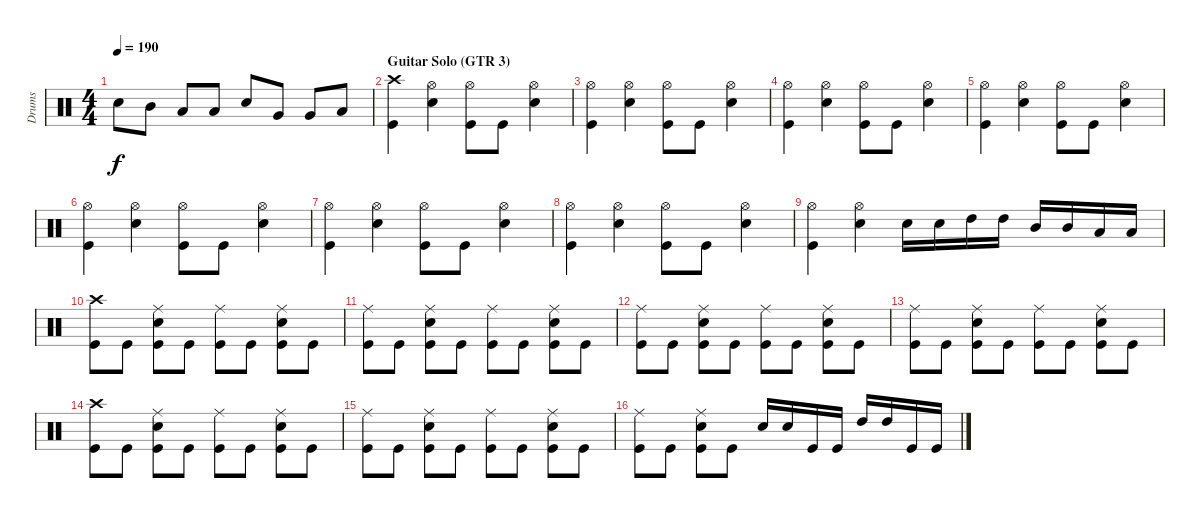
\track ("Drums" "Drums") {instrument percussion}
\staff {score}
\articulation defaults
\ts (4 4)
\tempo 190
\clef neutral
\ks c "Electric Snare (hit)".8{dy f} "Mid Tom (hit)".8 "Low Tom (hit)".8 "Low Tom (hit)".8 "Electric Snare (hit)".8 "Very Low Tom (hit)".8 "Very Low Tom (hit)".8 "Low Floor Tom (hit)".8
|
\section ("" "Guitar Solo (GTR 3)")
("Crash high (hit)" "Kick (hit)").4 ("Hi-Hat (open)" "Electric Snare (hit)").4 ("Hi-Hat (open)" "Kick (hit)").8 "Kick (hit)".8 ("Hi-Hat (open)" "Electric Snare (hit)").4 |
("Hi-Hat (open)" "Kick (hit)").4 ("Hi-Hat (open)" "Electric Snare (hit)").4 ("Hi-Hat (open)" "Kick (hit)").8 "Kick (hit)".8 ("Hi-Hat (open)" "Electric Snare (hit)").4 |
("Hi-Hat (open)" "Kick (hit)").4 ("Hi-Hat (open)" "Electric Snare (hit)").4 ("Hi-Hat (open)" "Kick (hit)").8 "Kick (hit)".8 ("Hi-Hat (open)" "Electric Snare (hit)").4 |
("Hi-Hat (open)" "Kick (hit)").4 ("Hi-Hat (open)" "Electric Snare (hit)").4 ("Hi-Hat (open)" "Kick (hit)").8 "Kick (hit)".8 ("Hi-Hat (open)" "Electric Snare (hit)").4 |
("Hi-Hat (open)" "Kick (hit)").4 ("Hi-Hat (open)" "Electric Snare (hit)").4 ("Hi-Hat (open)" "Kick (hit)").8 "Kick (hit)".8 ("Hi-Hat (open)" "Electric Snare (hit)").4 |
("Hi-Hat (open)" "Kick (hit)").4 ("Hi-Hat (open)" "Electric Snare (hit)").4 ("Hi-Hat (open)" "Kick (hit)").8 "Kick (hit)".8 ("Hi-Hat (open)" "Electric Snare (hit)").4 |
("Hi-Hat (open)" "Kick (hit)").4 ("Hi-Hat (open)" "Electric Snare (hit)").4 ("Hi-Hat (open)" "Kick (hit)").8 "Kick (hit)".8 ("Hi-Hat (open)" "Electric Snare (hit)").4 |
("Hi-Hat (open)" "Kick (hit)").4 ("Hi-Hat (open)" "Electric Snare (hit)").4 "Electric Snare (hit)".16 "Electric Snare (hit)".16 "High Tom (hit)".16 "High Tom (hit)".16 "Mid Tom (hit)".16 "Mid Tom (hit)".16 "Low Tom (hit)".16 "Low Tom (hit)".16 |
("Crash high (hit)" "Kick (hit)").8 "Kick (hit)".8 ("Ride (middle)" "Electric Snare (hit)" "Kick (hit)").8 "Kick (hit)".8 ("Ride (middle)" "Kick (hit)").8 "Kick (hit)".8 ("Ride (middle)" "Electric Snare (hit)" "Kick (hit)").8 "Kick (hit)".8 |
("Ride (middle)" "Kick (hit)").8 "Kick (hit)".8 ("Ride (middle)" "Electric Snare (hit)" "Kick (hit)").8 "Kick (hit)".8 ("Ride (middle)" "Kick (hit)").8 "Kick (hit)".8 ("Ride (middle)" "Electric Snare (hit)" "Kick (hit)").8 "Kick (hit)".8 |
("Ride (middle)" "Kick (hit)").8 "Kick (hit)".8 ("Ride (middle)" "Electric Snare (hit)" "Kick (hit)").8 "Kick (hit)".8 ("Ride (middle)" "Kick (hit)").8 "Kick (hit)".8 ("Ride (middle)" "Electric Snare (hit)" "Kick (hit)").8 "Kick (hit)".8 |
("Ride (middle)" "Kick (hit)").8 "Kick (hit)".8 ("Ride (middle)" "Electric Snare (hit)" "Kick (hit)").8 "Kick (hit)".8 ("Ride (middle)" "Kick (hit)").8 "Kick (hit)".8 ("Ride (middle)" "Electric Snare (hit)" "Kick (hit)").8 "Kick (hit)".8 |
("Crash high (hit)" "Kick (hit)").8 "Kick (hit)".8 ("Ride (middle)" "Electric Snare (hit)" "Kick (hit)").8 "Kick (hit)".8 ("Ride (middle)" "Kick (hit)").8 "Kick (hit)".8 ("Ride (middle)" "Electric Snare (hit)" "Kick (hit)").8 "Kick (hit)".8 |
("Ride (middle)" "Kick (hit)").8 "Kick (hit)".8 ("Ride (middle)" "Electric Snare (hit)" "Kick (hit)").8 "Kick (hit)".8 ("Ride (middle)" "Kick (hit)").8 "Kick (hit)".8 ("Ride (middle)" "Electric Snare (hit)" "Kick (hit)").8 "Kick (hit)".8 |
("Ride (middle)" "Kick (hit)").8 "Kick (hit)".8 ("Ride (middle)" "Electric Snare (hit)" "Kick (hit)").8 "Kick (hit)".8 "Electric Snare (hit)".16 "Electric Snare (hit)".16 "Kick (hit)".16 "Kick (hit)".16 "High Tom (hit)".16 "High Tom (hit)".16 "Kick (hit)".16 "Kick (hit)".16
